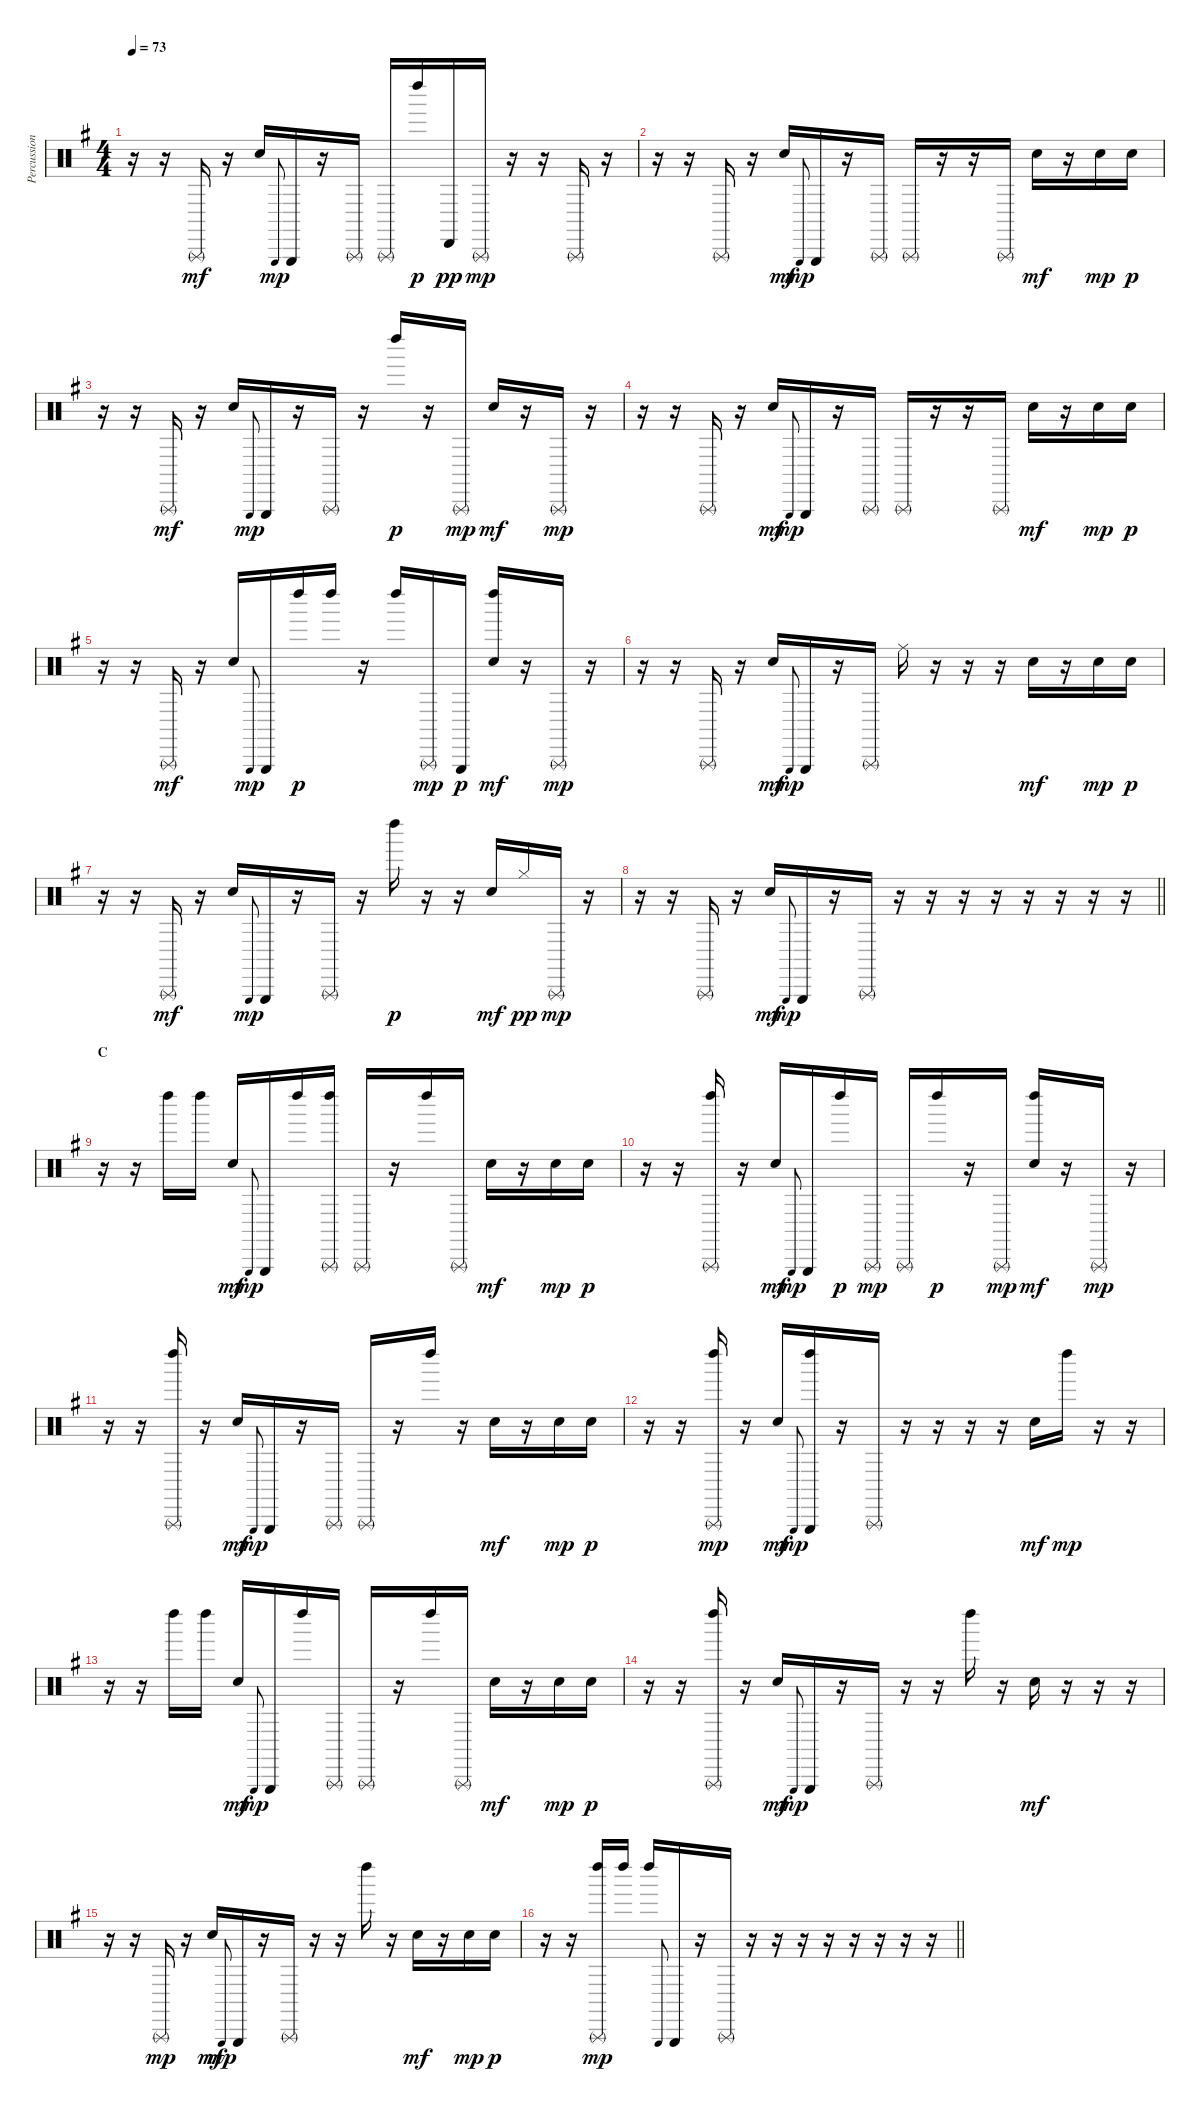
\track ("Percussion" "Percussion") {instrument percussion}
\staff {score}
\articulation defaults
\ts (4 4)
\tempo 73
\clef neutral
\ks g
r.16{dy p} r.16 "Triangle (rnute)".16{dy mf} r.16 "Hand Clap (hit)".16 "Triangle (hit)".8{gr onbeat dy mp} "Triangle (hit)".16 r.16 "Triangle (rnute)".16 "Triangle (rnute)".16 "Left Maraca (hit)".16{dy p} "Cabasa (hit)".16{dy pp} "Triangle (rnute)".16{dy mp} r.16 r.16 "Triangle (rnute)".16 r.16 |
r.16 r.16 "Triangle (rnute)".16 r.16 "Hand Clap (hit)".16{dy mf} "Triangle (hit)".8{gr onbeat dy mp} "Triangle (hit)".16 r.16 "Triangle (rnute)".16 "Triangle (rnute)".16 r.16 r.16 "Triangle (rnute)".16 "Hand Clap (hit)".16{dy mf} r.16 "Snare (hit) 2".16{dy mp} "Snare (hit) 2".16{dy p} |
r.16 r.16 "Triangle (rnute)".16{dy mf} r.16 "Hand Clap (hit)".16 "Triangle (hit)".8{gr onbeat dy mp} "Triangle (hit)".16 r.16 "Triangle (rnute)".16 r.16 "Left Maraca (hit)".16{dy p} r.16 "Triangle (rnute)".16{dy mp} "Hand Clap (hit)".16{dy mf} r.16 "Triangle (rnute)".16{dy mp} r.16 |
r.16 r.16 "Triangle (rnute)".16 r.16 "Hand Clap (hit)".16{dy mf} "Triangle (hit)".8{gr onbeat dy mp} "Triangle (hit)".16 r.16 "Triangle (rnute)".16 "Triangle (rnute)".16 r.16 r.16 "Triangle (rnute)".16 "Hand Clap (hit)".16{dy mf} r.16 "Snare (hit) 2".16{dy mp} "Snare (hit) 2".16{dy p} |
r.16 r.16 "Triangle (rnute)".16{dy mf} r.16 "Hand Clap (hit)".16 "Triangle (hit)".8{gr onbeat dy mp} "Triangle (hit)".16 "Left Maraca (hit)".16{dy p} "Left Maraca (hit)".16 r.16 "Left Maraca (hit)".16 "Triangle (rnute)".16{dy mp} "Triangle (hit)".16{dy p} ("Left Maraca (hit)" "Hand Clap (hit)").16{dy mf} r.16 "Triangle (rnute)".16{dy mp} r.16 |
r.16 r.16 "Triangle (rnute)".16 r.16 "Hand Clap (hit)".16{dy mf} "Triangle (hit)".8{gr onbeat dy mp} "Triangle (hit)".16 r.16 "Triangle (rnute)".16 "Ride (middle)".16 r.16 r.16 r.16 "Hand Clap (hit)".16{dy mf} r.16 "Snare (hit) 2".16{dy mp} "Snare (hit) 2".16{dy p} |
r.16 r.16 "Triangle (rnute)".16{dy mf} r.16 "Hand Clap (hit)".16 "Triangle (hit)".8{gr onbeat dy mp} "Triangle (hit)".16 r.16 "Triangle (rnute)".16 r.16 "Left Maraca (hit)".16{dy p} r.16 r.16 "Hand Clap (hit)".16{dy mf} "Hi-Hat (closed)".16{dy pp} "Triangle (rnute)".16{dy mp} r.16 |
\barLineRight lightlight
r.16 r.16 "Triangle (rnute)".16 r.16 "Hand Clap (hit)".16{dy mf} "Triangle (hit)".8{gr onbeat dy mp} "Triangle (hit)".16 r.16 "Triangle (rnute)".16 r.16 r.16 r.16 r.16 r.16 r.16 r.16 r.16 |
\section ("" "C")
r.16 r.16 "Left Maraca (hit)".16 "Left Maraca (hit)".16 "Hand Clap (hit)".16{dy mf} "Triangle (hit)".8{gr onbeat dy mp} "Triangle (hit)".16 "Left Maraca (hit)".16 ("Triangle (rnute)" "Left Maraca (hit)").16 "Triangle (rnute)".16 r.16 "Left Maraca (hit)".16 "Triangle (rnute)".16 "Hand Clap (hit)".16{dy mf} r.16 "Snare (hit) 2".16{dy mp} "Snare (hit) 2".16{dy p} |
r.16 r.16 ("Triangle (rnute)" "Left Maraca (hit)").16 r.16 "Hand Clap (hit)".16{dy mf} "Triangle (hit)".8{gr onbeat dy mp} "Triangle (hit)".16 "Left Maraca (hit)".16{dy p} "Triangle (rnute)".16{dy mp} "Triangle (rnute)".16 "Left Maraca (hit)".16{dy p} r.16 "Triangle (rnute)".16{dy mp} ("Left Maraca (hit)" "Hand Clap (hit)").16{dy mf} r.16 "Triangle (rnute)".16{dy mp} r.16 |
r.16 r.16 ("Triangle (rnute)" "Left Maraca (hit)").16 r.16 "Hand Clap (hit)".16{dy mf} "Triangle (hit)".8{gr onbeat dy mp} "Triangle (hit)".16 r.16 "Triangle (rnute)".16 "Triangle (rnute)".16 r.16 "Left Maraca (hit)".16 r.16 "Hand Clap (hit)".16{dy mf} r.16 "Snare (hit) 2".16{dy mp} "Snare (hit) 2".16{dy p} |
r.16 r.16 ("Triangle (rnute)" "Left Maraca (hit)").16{dy mp} r.16 "Hand Clap (hit)".16{dy mf} "Triangle (hit)".8{gr onbeat dy mp} ("Triangle (hit)" "Left Maraca (hit)").16 r.16 "Triangle (rnute)".16 r.16 r.16 r.16 r.16 "Hand Clap (hit)".16{dy mf} "Left Maraca (hit)".16{dy mp} r.16 r.16 |
r.16 r.16 "Left Maraca (hit)".16 "Left Maraca (hit)".16 "Hand Clap (hit)".16{dy mf} "Triangle (hit)".8{gr onbeat dy mp} "Triangle (hit)".16 "Left Maraca (hit)".16 "Triangle (rnute)".16 "Triangle (rnute)".16 r.16 "Left Maraca (hit)".16 "Triangle (rnute)".16 "Hand Clap (hit)".16{dy mf} r.16 "Snare (hit) 2".16{dy mp} "Snare (hit) 2".16{dy p} |
r.16 r.16 ("Triangle (rnute)" "Left Maraca (hit)").16 r.16 "Hand Clap (hit)".16{dy mf} "Triangle (hit)".8{gr onbeat dy mp} "Triangle (hit)".16 r.16 "Triangle (rnute)".16 r.16 r.16 "Left Maraca (hit)".16 r.16 "Hand Clap (hit)".16{dy mf} r.16 r.16 r.16 |
r.16 r.16 "Triangle (rnute)".16{dy mp} r.16 "Hand Clap (hit)".16{dy mf} "Triangle (hit)".8{gr onbeat dy mp} "Triangle (hit)".16 r.16 "Triangle (rnute)".16 r.16 r.16 "Left Maraca (hit)".16 r.16 "Hand Clap (hit)".16{dy mf} r.16 "Snare (hit) 2".16{dy mp} "Snare (hit) 2".16{dy p} |
\barLineRight lightlight
r.16 r.16 ("Triangle (rnute)" "Left Maraca (hit)").16{dy mp} "Left Maraca (hit)".16 "Left Maraca (hit)".16 "Triangle (hit)".8{gr onbeat} "Triangle (hit)".16 r.16 "Triangle (rnute)".16 r.16 r.16 r.16 r.16 r.16 r.16 r.16 r.16
